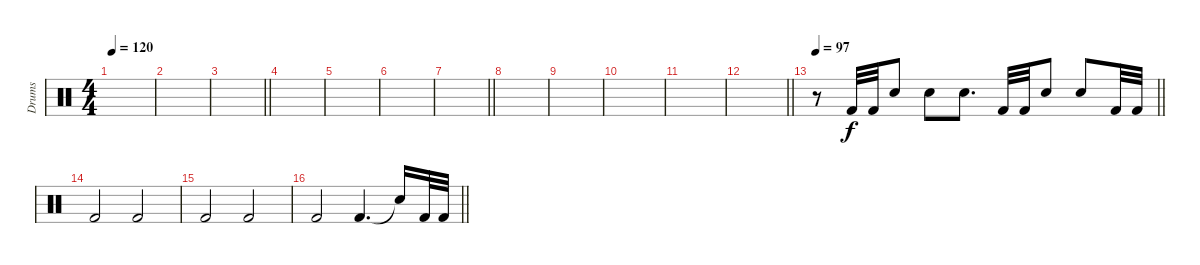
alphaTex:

\track ("Drums" "Drums") {instrument percussion}
\staff
\articulation defaults
\ts (4 4)
\tempo 120
\clef neutral
\ks c
|
|
\barLineRight lightlight
|
|
|
|
\barLineRight lightlight
|
|
|
|
|
\barLineRight lightlight
|
\tempo 97
\barLineRight lightlight
r.8 "Kick (hit) 2".32 "Kick (hit) 2".32 "Electric Snare (hit)".8 "Electric Snare (hit)".8 "Electric Snare (hit)".8{d} "Kick (hit) 2".32 "Kick (hit) 2".32 "Electric Snare (hit)".8 "Electric Snare (hit)".8 "Kick (hit) 2".32 "Kick (hit) 2".32 |
"Kick (hit) 2".2 "Kick (hit) 2".2 |
"Kick (hit) 2".2 "Kick (hit) 2".2 |
\barLineRight lightlight "Kick (hit) 2".2 "Kick (hit) 2".4{d} "Snare (hit)"{t}.16 "Kick (hit) 2".32 "Kick (hit) 2".32
